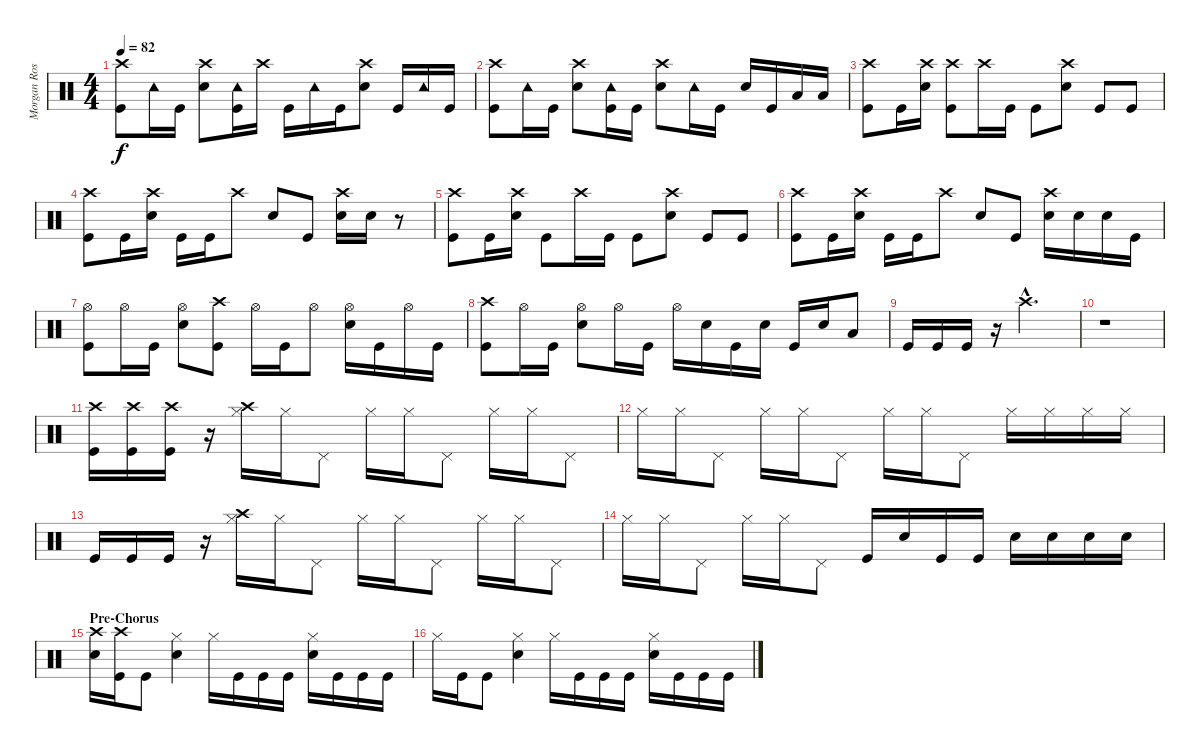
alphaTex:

\track ("Morgan Rose" "Morgan Ros") {instrument percussion}
\staff {score}
\articulation defaults
\ts (4 4)
\tempo 82
\clef neutral
\ks c
("Crash high (hit)" "Kick (hit)").8{dy f} "Tambourine (hit)".16 "Kick (hit)".16 ("Crash high (hit)" "Snare (hit) 2").8 ("Tambourine (hit)" "Kick (hit)").16 "Crash high (hit)".16 "Kick (hit)".16 "Tambourine (hit)".16 "Kick (hit)".16 ("Crash high (hit)" "Snare (hit) 2").8 "Kick (hit)".16 "Tambourine (hit)".16 "Kick (hit)".16 |
("Crash high (hit)" "Kick (hit)").8 "Tambourine (hit)".16 "Kick (hit)".16 ("Crash high (hit)" "Snare (hit) 2").8 ("Tambourine (hit)" "Kick (hit)").16 "Kick (hit)".16 ("Crash high (hit)" "Snare (hit) 2").8 "Tambourine (hit)".16 "Kick (hit)".16 "Snare (hit) 2".16 "Kick (hit)".16 "Low Tom (hit)".16 "Low Tom (hit)".16 |
("Crash high (hit)" "Kick (hit)").8 "Kick (hit)".16 ("Crash high (hit)" "Snare (hit) 2").16 ("Crash high (hit)" "Kick (hit)").8 "Crash high (hit)".16 "Kick (hit)".16 "Kick (hit)".8 ("Crash high (hit)" "Snare (hit) 2").8 "Kick (hit)".8 "Kick (hit)".8 |
("Crash high (hit)" "Kick (hit)").8 "Kick (hit)".16 ("Crash high (hit)" "Snare (hit) 2").16 "Kick (hit)".16 "Kick (hit)".16 "Crash high (hit)".8 "Snare (hit) 2".8 "Kick (hit)".8 ("Crash high (hit)" "Snare (hit) 2").16 "Snare (hit) 2".16 r.8 |
("Crash high (hit)" "Kick (hit)").8 "Kick (hit)".16 ("Crash high (hit)" "Snare (hit) 2").16 "Kick (hit)".8 "Crash high (hit)".16 "Kick (hit)".16 "Kick (hit)".8 ("Crash high (hit)" "Snare (hit) 2").8 "Kick (hit)".8 "Kick (hit)".8 |
("Crash high (hit)" "Kick (hit)").8 "Kick (hit)".16 ("Crash high (hit)" "Snare (hit) 2").16 "Kick (hit)".16 "Kick (hit)".16 "Crash high (hit)".8 "Snare (hit) 2".8 "Kick (hit)".8 ("Crash high (hit)" "Snare (hit) 2").16 "Snare (hit) 2".16 "Snare (hit) 2".16 "Kick (hit)".16 |
("Hi-Hat (open)" "Kick (hit)").8 "Hi-Hat (open)".16 "Kick (hit)".16 ("Hi-Hat (open)" "Snare (hit) 2").8 ("Crash high (hit)" "Kick (hit)").8 "Hi-Hat (open)".16 "Kick (hit)".16 "Hi-Hat (open)".8 ("Hi-Hat (open)" "Snare (hit) 2").16 "Kick (hit)".16 "Hi-Hat (open)".16 "Kick (hit)".16 |
("Crash high (hit)" "Kick (hit)").8 "Hi-Hat (open)".16 "Kick (hit)".16 ("Hi-Hat (open)" "Snare (hit) 2").8 "Hi-Hat (open)".16 "Kick (hit)".16 "Hi-Hat (open)".16 "Snare (hit) 2".16 "Kick (hit)".16 "Snare (hit) 2".16 "Kick (hit)".16 "Snare (hit) 2".16 "Low Tom (hit)".8 |
"Kick (hit)".16 "Kick (hit)".16 "Kick (hit)".16 r.16 "Crash high (hit)"{hac}.2{d} |
r.1 |
("Crash high (hit)" "Kick (hit)").16 ("Crash high (hit)" "Kick (hit)").16 ("Crash high (hit)" "Kick (hit)").16 r.16 ("Crash high (hit)" "Hi-Hat (closed)").16 "Hi-Hat (closed)".16 "Pedal Hi-Hat (hit)".8 "Hi-Hat (closed)".16 "Hi-Hat (closed)".16 "Pedal Hi-Hat (hit)".8 "Hi-Hat (closed)".16 "Hi-Hat (closed)".16 "Pedal Hi-Hat (hit)".8 |
"Hi-Hat (closed)".16 "Hi-Hat (closed)".16 "Pedal Hi-Hat (hit)".8 "Hi-Hat (closed)".16 "Hi-Hat (closed)".16 "Pedal Hi-Hat (hit)".8 "Hi-Hat (closed)".16 "Hi-Hat (closed)".16 "Pedal Hi-Hat (hit)".8 "Hi-Hat (closed)".16 "Hi-Hat (closed)".16 "Hi-Hat (closed)".16 "Hi-Hat (closed)".16 |
"Kick (hit)".16 "Kick (hit)".16 "Kick (hit)".16 r.16 ("Crash high (hit)" "Hi-Hat (closed)").16 "Hi-Hat (closed)".16 "Pedal Hi-Hat (hit)".8 "Hi-Hat (closed)".16 "Hi-Hat (closed)".16 "Pedal Hi-Hat (hit)".8 "Hi-Hat (closed)".16 "Hi-Hat (closed)".16 "Pedal Hi-Hat (hit)".8 |
"Hi-Hat (closed)".16 "Hi-Hat (closed)".16 "Pedal Hi-Hat (hit)".8 "Hi-Hat (closed)".16 "Hi-Hat (closed)".16 "Pedal Hi-Hat (hit)".8 "Kick (hit)".16 "Snare (hit) 2".16 "Kick (hit)".16 "Kick (hit)".16 "Snare (hit) 2".16 "Snare (hit) 2".16 "Snare (hit) 2".16 "Snare (hit) 2".16 |
\section ("" "Pre-Chorus")
("Crash high (hit)" "Snare (hit) 2").16 ("Crash high (hit)" "Kick (hit)").16 "Kick (hit)".8 ("Hi-Hat (closed)" "Snare (hit) 2").4 "Hi-Hat (closed)".16 "Kick (hit)".16 "Kick (hit)".16 "Kick (hit)".16 ("Hi-Hat (closed)" "Snare (hit) 2").16 "Kick (hit)".16 "Kick (hit)".16 "Kick (hit)".16 |
"Hi-Hat (closed)".16 "Kick (hit)".16 "Kick (hit)".8 ("Hi-Hat (closed)" "Snare (hit) 2").4 "Hi-Hat (closed)".16 "Kick (hit)".16 "Kick (hit)".16 "Kick (hit)".16 ("Hi-Hat (closed)" "Snare (hit) 2").16 "Kick (hit)".16 "Kick (hit)".16 "Kick (hit)".16
